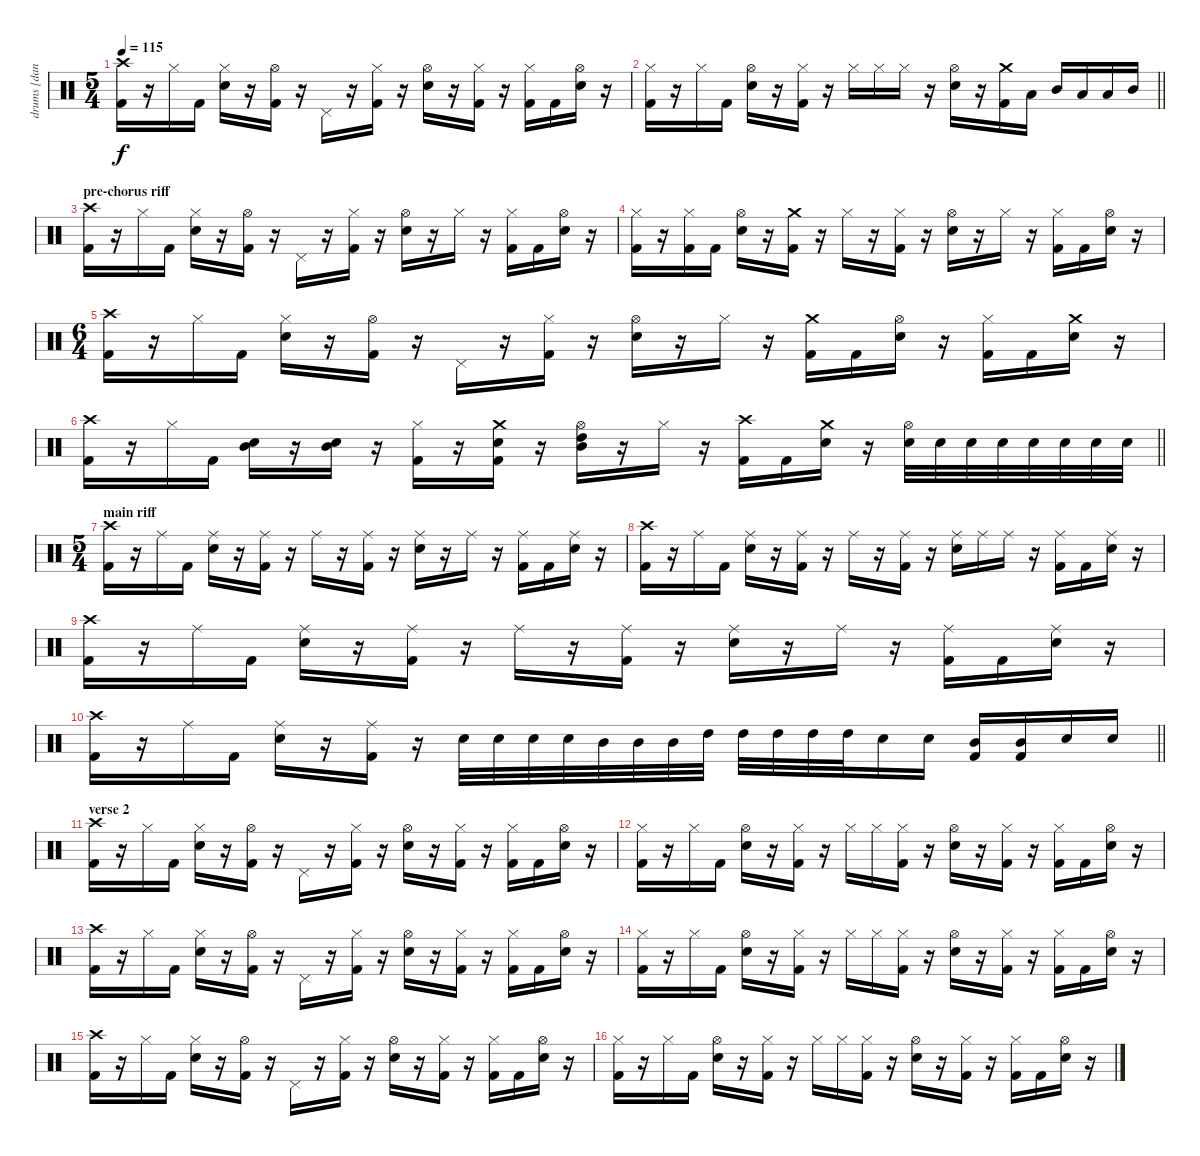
\track ("drums [danny carey]" "drums [dan") {instrument percussion}
\staff {score}
\articulation defaults
\ts (5 4)
\tempo 115
\clef neutral
\ks c
("Crash high (hit)" "Kick (hit) 2").16{dy f} r.16 "Hi-Hat (closed)".16 "Kick (hit) 2".16 ("Hi-Hat (closed)" "Electric Snare (hit)").16 r.16 ("Hi-Hat (open)" "Kick (hit) 2").16 r.16 "Pedal Hi-Hat (hit)".16 r.16 ("Hi-Hat (closed)" "Kick (hit) 2").16 r.16 ("Hi-Hat (open)" "Electric Snare (hit)").16 r.16 ("Hi-Hat (closed)" "Kick (hit) 2").16 r.16 ("Hi-Hat (closed)" "Kick (hit) 2").16 "Kick (hit) 2".16 ("Hi-Hat (open)" "Electric Snare (hit)").16 r.16 |
\barLineRight lightlight
("Hi-Hat (closed)" "Kick (hit) 2").16 r.16 "Hi-Hat (closed)".16 "Kick (hit) 2".16 ("Hi-Hat (open)" "Electric Snare (hit)").16 r.16 ("Hi-Hat (closed)" "Kick (hit) 2").16 r.16 "Hi-Hat (closed)".16 "Hi-Hat (closed)".16 "Hi-Hat (closed)".16 r.16 ("Hi-Hat (open)" "Electric Snare (hit)").16 r.16 ("Crash medium (hit)" "Kick (hit) 2").16 "Low Tom (hit)".16 "Mid Tom (hit)".16 "Low Tom (hit)".16 "Low Tom (hit)".16 "Mid Tom (hit)".16 |
\section ("" "pre-chorus riff")
("Crash high (hit)" "Kick (hit) 2").16 r.16 "Hi-Hat (closed)".16 "Kick (hit) 2".16 ("Hi-Hat (closed)" "Electric Snare (hit)").16 r.16 ("Hi-Hat (open)" "Kick (hit) 2").16 r.16 "Pedal Hi-Hat (hit)".16 r.16 ("Hi-Hat (closed)" "Kick (hit) 2").16 r.16 ("Hi-Hat (open)" "Electric Snare (hit)").16 r.16 "Hi-Hat (closed)".16 r.16 ("Hi-Hat (closed)" "Kick (hit) 2").16 "Kick (hit) 2".16 ("Hi-Hat (open)" "Electric Snare (hit)").16 r.16 |
("Hi-Hat (closed)" "Kick (hit) 2").16 r.16 ("Hi-Hat (closed)" "Kick (hit) 2").16 "Kick (hit) 2".16 ("Hi-Hat (open)" "Electric Snare (hit)").16 r.16 ("Crash medium (hit)" "Kick (hit) 2").16 r.16 "Hi-Hat (closed)".16 r.16 ("Hi-Hat (closed)" "Kick (hit) 2").16 r.16 ("Hi-Hat (open)" "Electric Snare (hit)").16 r.16 "Hi-Hat (closed)".16 r.16 ("Hi-Hat (closed)" "Kick (hit) 2").16 "Kick (hit) 2".16 ("Hi-Hat (open)" "Electric Snare (hit)").16 r.16 |
\ts (6 4)
("Crash high (hit)" "Kick (hit) 2").16 r.16 "Hi-Hat (closed)".16 "Kick (hit) 2".16 ("Hi-Hat (closed)" "Electric Snare (hit)").16 r.16 ("Hi-Hat (open)" "Kick (hit) 2").16 r.16 "Pedal Hi-Hat (hit)".16 r.16 ("Hi-Hat (closed)" "Kick (hit) 2").16 r.16 ("Hi-Hat (open)" "Electric Snare (hit)").16 r.16 "Hi-Hat (closed)".16 r.16 ("Crash medium (hit)" "Kick (hit) 2").16 "Kick (hit) 2".16 ("Hi-Hat (open)" "Electric Snare (hit)").16 r.16 ("Hi-Hat (closed)" "Kick (hit) 2").16 "Kick (hit) 2".16 ("Crash medium (hit)" "Electric Snare (hit)").16 r.16 |
\barLineRight lightlight
("Crash high (hit)" "Kick (hit) 2").16 r.16 "Hi-Hat (closed)".16 "Kick (hit) 2".16 ("Mid Tom (hit)" "Electric Snare (hit)").16 r.16 ("Mid Tom (hit)" "Electric Snare (hit)").16 r.16 ("Hi-Hat (closed)" "Kick (hit) 2").16 r.16 ("Crash medium (hit)" "Electric Snare (hit)" "Kick (hit) 2").16 r.16 ("Hi-Hat (open)" "High Tom (hit)" "Mid Tom (hit)").16 r.16 "Hi-Hat (closed)".16 r.16 ("Crash high (hit)" "Kick (hit) 2").16 "Kick (hit) 2".16 ("Crash medium (hit)" "Electric Snare (hit)").16 r.16 ("Hi-Hat (open)" "Electric Snare (hit)").32 "Electric Snare (hit)".32 "Electric Snare (hit)".32 "Electric Snare (hit)".32 "Electric Snare (hit)".32 "Electric Snare (hit)".32 "Electric Snare (hit)".32 "Electric Snare (hit)".32 |
\ts (5 4)
\section ("" "main riff")
("Crash high (hit)" "Kick (hit) 2").16 r.16 "Ride (middle)".16 "Kick (hit) 2".16 ("Ride (middle)" "Electric Snare (hit)").16 r.16 ("Ride (middle)" "Kick (hit) 2").16 r.16 "Ride (middle)".16 r.16 ("Ride (middle)" "Kick (hit) 2").16 r.16 ("Ride (middle)" "Electric Snare (hit)").16 r.16 "Ride (middle)".16 r.16 ("Ride (middle)" "Kick (hit) 2").16 "Kick (hit) 2".16 ("Ride (middle)" "Electric Snare (hit)").16 r.16 |
("Crash high (hit)" "Kick (hit) 2").16 r.16 "Ride (middle)".16 "Kick (hit) 2".16 ("Ride (middle)" "Electric Snare (hit)").16 r.16 ("Ride (middle)" "Kick (hit) 2").16 r.16 "Ride (middle)".16 r.16 ("Ride (middle)" "Kick (hit) 2").16 r.16 ("Ride (middle)" "Electric Snare (hit)").16 "Ride (middle)".16 "Ride (middle)".16 r.16 ("Ride (middle)" "Kick (hit) 2").16 "Kick (hit) 2".16 ("Ride (middle)" "Electric Snare (hit)").16 r.16 |
("Crash high (hit)" "Kick (hit) 2").16 r.16 "Ride (middle)".16 "Kick (hit) 2".16 ("Ride (middle)" "Electric Snare (hit)").16 r.16 ("Ride (middle)" "Kick (hit) 2").16 r.16 "Ride (middle)".16 r.16 ("Ride (middle)" "Kick (hit) 2").16 r.16 ("Ride (middle)" "Electric Snare (hit)").16 r.16 "Ride (middle)".16 r.16 ("Ride (middle)" "Kick (hit) 2").16 "Kick (hit) 2".16 ("Ride (middle)" "Electric Snare (hit)").16 r.16 |
\barLineRight lightlight
("Crash high (hit)" "Kick (hit) 2").16 r.16 "Ride (middle)".16 "Kick (hit) 2".16 ("Ride (middle)" "Electric Snare (hit)").16 r.16 ("Ride (middle)" "Kick (hit) 2").16 r.16 "Electric Snare (hit)".32 "Electric Snare (hit)".32 "Electric Snare (hit)".32 "Electric Snare (hit)".32 "Mid Tom (hit)".32 "Mid Tom (hit)".32 "Mid Tom (hit)".32 "High Tom (hit)".32 "High Tom (hit)".32 "High Tom (hit)".32 "High Tom (hit)".32 "High Tom (hit)".32 "Electric Snare (hit)".16 "Electric Snare (hit)".16 ("Mid Tom (hit)" "Kick (hit) 2").16 ("Mid Tom (hit)" "Kick (hit) 2").16 "Electric Snare (hit)".16 "Electric Snare (hit)".16 |
\section ("" "verse 2")
("Crash high (hit)" "Kick (hit) 2").16 r.16 "Hi-Hat (closed)".16 "Kick (hit) 2".16 ("Hi-Hat (closed)" "Electric Snare (hit)").16 r.16 ("Hi-Hat (open)" "Kick (hit) 2").16 r.16 "Pedal Hi-Hat (hit)".16 r.16 ("Hi-Hat (closed)" "Kick (hit) 2").16 r.16 ("Hi-Hat (open)" "Electric Snare (hit)").16 r.16 ("Hi-Hat (closed)" "Kick (hit) 2").16 r.16 ("Hi-Hat (closed)" "Kick (hit) 2").16 "Kick (hit) 2".16 ("Hi-Hat (open)" "Electric Snare (hit)").16 r.16 |
("Hi-Hat (closed)" "Kick (hit) 2").16 r.16 "Hi-Hat (closed)".16 "Kick (hit) 2".16 ("Hi-Hat (open)" "Electric Snare (hit)").16 r.16 ("Hi-Hat (closed)" "Kick (hit) 2").16 r.16 "Hi-Hat (closed)".16 "Hi-Hat (closed)".16 ("Hi-Hat (closed)" "Kick (hit) 2").16 r.16 ("Hi-Hat (open)" "Electric Snare (hit)").16 r.16 ("Hi-Hat (closed)" "Kick (hit) 2").16 r.16 ("Hi-Hat (closed)" "Kick (hit) 2").16 "Kick (hit) 2".16 ("Hi-Hat (open)" "Electric Snare (hit)").16 r.16 |
("Crash high (hit)" "Kick (hit) 2").16 r.16 "Hi-Hat (closed)".16 "Kick (hit) 2".16 ("Hi-Hat (closed)" "Electric Snare (hit)").16 r.16 ("Hi-Hat (open)" "Kick (hit) 2").16 r.16 "Pedal Hi-Hat (hit)".16 r.16 ("Hi-Hat (closed)" "Kick (hit) 2").16 r.16 ("Hi-Hat (open)" "Electric Snare (hit)").16 r.16 ("Hi-Hat (closed)" "Kick (hit) 2").16 r.16 ("Hi-Hat (closed)" "Kick (hit) 2").16 "Kick (hit) 2".16 ("Hi-Hat (open)" "Electric Snare (hit)").16 r.16 |
("Hi-Hat (closed)" "Kick (hit) 2").16 r.16 "Hi-Hat (closed)".16 "Kick (hit) 2".16 ("Hi-Hat (open)" "Electric Snare (hit)").16 r.16 ("Hi-Hat (closed)" "Kick (hit) 2").16 r.16 "Hi-Hat (closed)".16 "Hi-Hat (closed)".16 ("Hi-Hat (closed)" "Kick (hit) 2").16 r.16 ("Hi-Hat (open)" "Electric Snare (hit)").16 r.16 ("Hi-Hat (closed)" "Kick (hit) 2").16 r.16 ("Hi-Hat (closed)" "Kick (hit) 2").16 "Kick (hit) 2".16 ("Hi-Hat (open)" "Electric Snare (hit)").16 r.16 |
("Crash high (hit)" "Kick (hit) 2").16 r.16 "Hi-Hat (closed)".16 "Kick (hit) 2".16 ("Hi-Hat (closed)" "Electric Snare (hit)").16 r.16 ("Hi-Hat (open)" "Kick (hit) 2").16 r.16 "Pedal Hi-Hat (hit)".16 r.16 ("Hi-Hat (closed)" "Kick (hit) 2").16 r.16 ("Hi-Hat (open)" "Electric Snare (hit)").16 r.16 ("Hi-Hat (closed)" "Kick (hit) 2").16 r.16 ("Hi-Hat (closed)" "Kick (hit) 2").16 "Kick (hit) 2".16 ("Hi-Hat (open)" "Electric Snare (hit)").16 r.16 |
("Hi-Hat (closed)" "Kick (hit) 2").16 r.16 "Hi-Hat (closed)".16 "Kick (hit) 2".16 ("Hi-Hat (open)" "Electric Snare (hit)").16 r.16 ("Hi-Hat (closed)" "Kick (hit) 2").16 r.16 "Hi-Hat (closed)".16 "Hi-Hat (closed)".16 ("Hi-Hat (closed)" "Kick (hit) 2").16 r.16 ("Hi-Hat (open)" "Electric Snare (hit)").16 r.16 ("Hi-Hat (closed)" "Kick (hit) 2").16 r.16 ("Hi-Hat (closed)" "Kick (hit) 2").16 "Kick (hit) 2".16 ("Hi-Hat (open)" "Electric Snare (hit)").16 r.16
